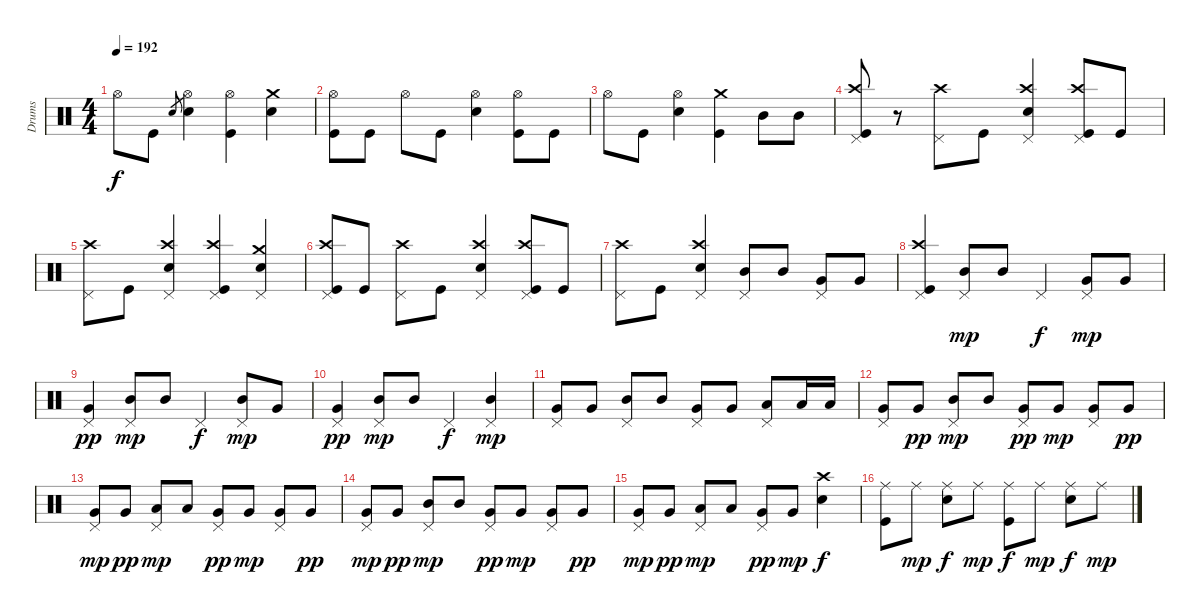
\track ("Drums" "Drums") {instrument percussion}
\staff {score}
\articulation defaults
\ts (4 4)
\tempo 192
\clef neutral
\ks c "Hi-Hat (open)".8{dy f} "Kick (hit)".8 "Electric Snare (hit)".8{gr}
("Hi-Hat (open)" "Electric Snare (hit)").4 ("Hi-Hat (open)" "Kick (hit)").4 ("Crash medium (hit)" "Electric Snare (hit)").4 |
("Hi-Hat (open)" "Kick (hit)").8 "Kick (hit)".8 "Hi-Hat (open)".8 "Kick (hit)".8 ("Hi-Hat (open)" "Electric Snare (hit)").4 ("Hi-Hat (open)" "Kick (hit)").8 "Kick (hit)".8 |
"Hi-Hat (open)".8 "Kick (hit)".8 ("Hi-Hat (open)" "Electric Snare (hit)").4 ("Crash medium (hit)" "Kick (hit)").4 "Mid Tom (hit)".8 "Mid Tom (hit)".8 |
("Crash high (hit)" "Pedal Hi-Hat (hit)" "Kick (hit)").8 r.8 ("Crash high (hit)" "Pedal Hi-Hat (hit)").8 "Kick (hit)".8 ("Crash high (hit)" "Pedal Hi-Hat (hit)" "Electric Snare (hit)").4 ("Crash high (hit)" "Pedal Hi-Hat (hit)" "Kick (hit)").8 "Kick (hit)".8 |
("Crash high (hit)" "Pedal Hi-Hat (hit)").8 "Kick (hit)".8 ("Crash high (hit)" "Pedal Hi-Hat (hit)" "Electric Snare (hit)").4 ("Crash high (hit)" "Pedal Hi-Hat (hit)" "Kick (hit)").4 ("Crash medium (hit)" "Pedal Hi-Hat (hit)" "Electric Snare (hit)").4 |
("Crash high (hit)" "Pedal Hi-Hat (hit)" "Kick (hit)").8 "Kick (hit)".8 ("Crash high (hit)" "Pedal Hi-Hat (hit)").8 "Kick (hit)".8 ("Crash high (hit)" "Pedal Hi-Hat (hit)" "Electric Snare (hit)").4 ("Crash high (hit)" "Pedal Hi-Hat (hit)" "Kick (hit)").8 "Kick (hit)".8 |
("Crash high (hit)" "Pedal Hi-Hat (hit)").8 "Kick (hit)".8 ("Crash high (hit)" "Pedal Hi-Hat (hit)" "Electric Snare (hit)").4 ("Pedal Hi-Hat (hit)" "Mid Tom (hit)").8 "Mid Tom (hit)".8 ("Pedal Hi-Hat (hit)" "Very Low Tom (hit)").8 "Very Low Tom (hit)".8 |
("Crash high (hit)" "Pedal Hi-Hat (hit)" "Kick (hit)").4 ("Pedal Hi-Hat (hit)" "Mid Tom (hit)").8{dy mp} "Mid Tom (hit)".8 "Pedal Hi-Hat (hit)".4{dy f} ("Pedal Hi-Hat (hit)" "Very Low Tom (hit)").8{dy mp} "Very Low Tom (hit)".8 |
("Pedal Hi-Hat (hit)" "Very Low Tom (hit)").4{dy pp} ("Pedal Hi-Hat (hit)" "Mid Tom (hit)").8{dy mp} "Mid Tom (hit)".8 "Pedal Hi-Hat (hit)".4{dy f} ("Pedal Hi-Hat (hit)" "Mid Tom (hit)").8{dy mp} "Very Low Tom (hit)".8 |
("Pedal Hi-Hat (hit)" "Very Low Tom (hit)").4{dy pp} ("Pedal Hi-Hat (hit)" "Mid Tom (hit)").8{dy mp} "Mid Tom (hit)".8 "Pedal Hi-Hat (hit)".4{dy f} ("Pedal Hi-Hat (hit)" "Mid Tom (hit)").4{dy mp} |
("Pedal Hi-Hat (hit)" "Very Low Tom (hit)").8 "Very Low Tom (hit)".8 ("Pedal Hi-Hat (hit)" "Mid Tom (hit)").8 "Mid Tom (hit)".8 ("Pedal Hi-Hat (hit)" "Very Low Tom (hit)").8 "Very Low Tom (hit)".8 ("Pedal Hi-Hat (hit)" "Low Tom (hit)").8 "Low Tom (hit)".16 "Low Tom (hit)".16 |
("Pedal Hi-Hat (hit)" "Very Low Tom (hit)").8 "Very Low Tom (hit)".8{dy pp} ("Pedal Hi-Hat (hit)" "Mid Tom (hit)").8{dy mp} "Mid Tom (hit)".8 ("Pedal Hi-Hat (hit)" "Very Low Tom (hit)").8{dy pp} "Very Low Tom (hit)".8{dy mp} ("Pedal Hi-Hat (hit)" "Very Low Tom (hit)").8 "Very Low Tom (hit)".8{dy pp} |
("Pedal Hi-Hat (hit)" "Very Low Tom (hit)").8{dy mp} "Very Low Tom (hit)".8{dy pp} ("Pedal Hi-Hat (hit)" "Low Tom (hit)").8{dy mp} "Low Tom (hit)".8 ("Pedal Hi-Hat (hit)" "Very Low Tom (hit)").8{dy pp} "Very Low Tom (hit)".8{dy mp} ("Pedal Hi-Hat (hit)" "Very Low Tom (hit)").8 "Very Low Tom (hit)".8{dy pp} |
("Pedal Hi-Hat (hit)" "Very Low Tom (hit)").8{dy mp} "Very Low Tom (hit)".8{dy pp} ("Pedal Hi-Hat (hit)" "Mid Tom (hit)").8{dy mp} "Mid Tom (hit)".8 ("Pedal Hi-Hat (hit)" "Very Low Tom (hit)").8{dy pp} "Very Low Tom (hit)".8{dy mp} ("Pedal Hi-Hat (hit)" "Very Low Tom (hit)").8 "Very Low Tom (hit)".8{dy pp} |
("Pedal Hi-Hat (hit)" "Very Low Tom (hit)").8{dy mp} "Very Low Tom (hit)".8{dy pp} ("Pedal Hi-Hat (hit)" "Low Tom (hit)").8{dy mp} "Low Tom (hit)".8 ("Pedal Hi-Hat (hit)" "Very Low Tom (hit)").8{dy pp} "Very Low Tom (hit)".8{dy mp} ("Crash high (hit)" "Electric Snare (hit)").4{dy f} |
("Ride (middle)" "Kick (hit)").8 "Ride (middle)".8{dy mp} ("Ride (middle)" "Electric Snare (hit)").8{dy f} "Ride (middle)".8{dy mp} ("Ride (middle)" "Kick (hit)").8{dy f} "Ride (middle)".8{dy mp} ("Ride (middle)" "Electric Snare (hit)").8{dy f} "Ride (middle)".8{dy mp}
